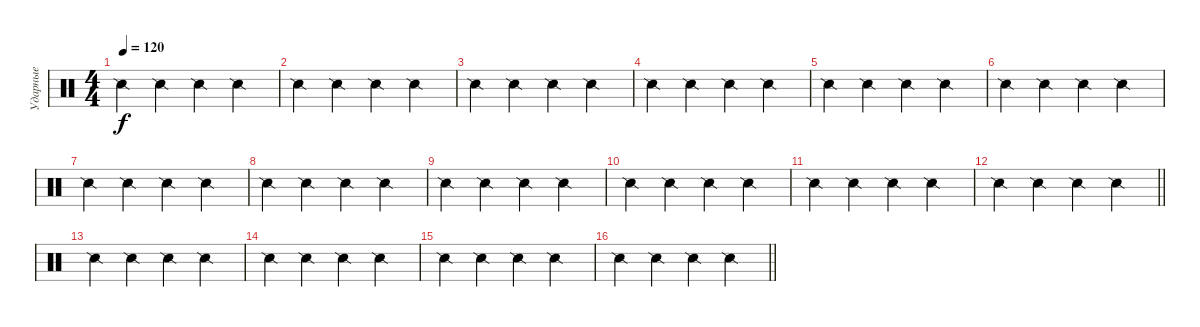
\track ("Ударные" "Ударные") {mute instrument percussion}
\staff {score}
\articulation defaults
\ts (4 4)
\tempo 120
\clef neutral
\ks c "Snare (side stick) 2".4{dy f} "Snare (side stick) 2".4 "Snare (side stick) 2".4 "Snare (side stick) 2".4
|
"Snare (side stick) 2".4 "Snare (side stick) 2".4 "Snare (side stick) 2".4 "Snare (side stick) 2".4 |
"Snare (side stick) 2".4 "Snare (side stick) 2".4 "Snare (side stick) 2".4 "Snare (side stick) 2".4 |
"Snare (side stick) 2".4 "Snare (side stick) 2".4 "Snare (side stick) 2".4 "Snare (side stick) 2".4 |
"Snare (side stick) 2".4 "Snare (side stick) 2".4 "Snare (side stick) 2".4 "Snare (side stick) 2".4 |
"Snare (side stick) 2".4 "Snare (side stick) 2".4 "Snare (side stick) 2".4 "Snare (side stick) 2".4 |
"Snare (side stick) 2".4 "Snare (side stick) 2".4 "Snare (side stick) 2".4 "Snare (side stick) 2".4 |
"Snare (side stick) 2".4 "Snare (side stick) 2".4 "Snare (side stick) 2".4 "Snare (side stick) 2".4 |
"Snare (side stick) 2".4 "Snare (side stick) 2".4 "Snare (side stick) 2".4 "Snare (side stick) 2".4 |
"Snare (side stick) 2".4 "Snare (side stick) 2".4 "Snare (side stick) 2".4 "Snare (side stick) 2".4 |
"Snare (side stick) 2".4 "Snare (side stick) 2".4 "Snare (side stick) 2".4 "Snare (side stick) 2".4 |
\barLineRight lightlight "Snare (side stick) 2".4 "Snare (side stick) 2".4 "Snare (side stick) 2".4 "Snare (side stick) 2".4
|
"Snare (side stick) 2".4 "Snare (side stick) 2".4 "Snare (side stick) 2".4 "Snare (side stick) 2".4 |
"Snare (side stick) 2".4 "Snare (side stick) 2".4 "Snare (side stick) 2".4 "Snare (side stick) 2".4 |
"Snare (side stick) 2".4 "Snare (side stick) 2".4 "Snare (side stick) 2".4 "Snare (side stick) 2".4 |
\barLineRight lightlight "Snare (side stick) 2".4 "Snare (side stick) 2".4 "Snare (side stick) 2".4 "Snare (side stick) 2".4
